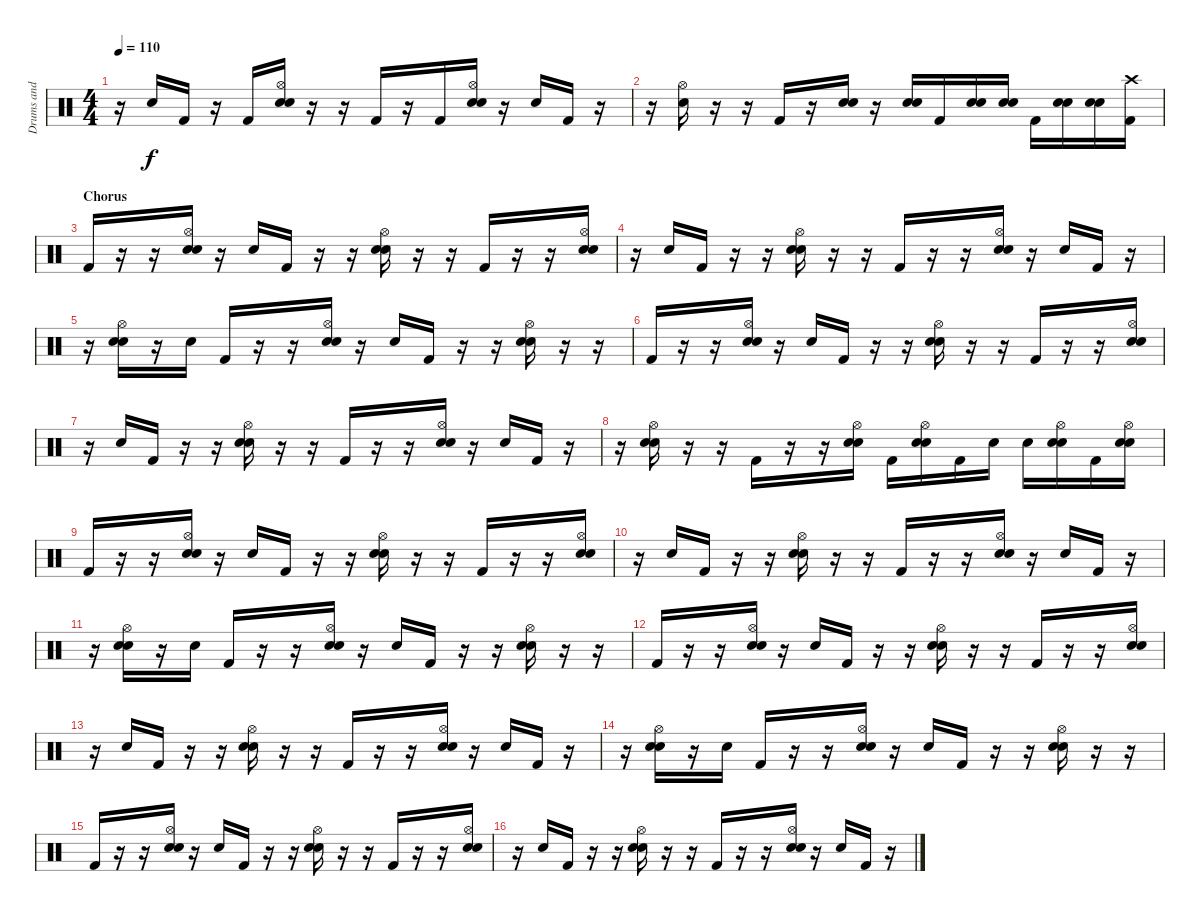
\track ("Drums and Claps" "Drums and ") {instrument percussion}
\staff {score}
\articulation defaults
\ts (4 4)
\tempo 110
\clef neutral
\ks c
r.16{dy f} "Hand Clap (hit)".16 "Kick (hit) 2".16 r.16 "Kick (hit) 2".16 ("Hi-Hat (open)" "Hand Clap (hit)" "Snare (hit) 2").16 r.16 r.16 "Kick (hit) 2".16 r.16 "Kick (hit) 2".16 ("Hi-Hat (open)" "Hand Clap (hit)" "Snare (hit) 2").16 r.16 "Hand Clap (hit)".16 "Kick (hit) 2".16 r.16 |
r.16 ("Hi-Hat (open)" "Snare (hit) 2").16 r.16 r.16 "Kick (hit) 2".16 r.16 ("Electric Snare (hit)" "Snare (hit) 2").16 r.16 ("Electric Snare (hit)" "Snare (hit) 2").16 "Kick (hit) 2".16 ("Electric Snare (hit)" "Snare (hit) 2").16 ("Electric Snare (hit)" "Snare (hit) 2").16 "Kick (hit) 2".16 ("Electric Snare (hit)" "Snare (hit) 2").16 ("Electric Snare (hit)" "Snare (hit) 2").16 ("Crash high (hit)" "Kick (hit) 2").16 |
\section ("" "Chorus")
"Kick (hit) 2".16 r.16 r.16 ("Hi-Hat (open)" "Hand Clap (hit)" "Snare (hit) 2").16 r.16 "Hand Clap (hit)".16 "Kick (hit) 2".16 r.16 r.16 ("Hi-Hat (open)" "Hand Clap (hit)" "Snare (hit) 2").16 r.16 r.16 "Kick (hit) 2".16 r.16 r.16 ("Hi-Hat (open)" "Hand Clap (hit)" "Snare (hit) 2").16 |
r.16 "Hand Clap (hit)".16 "Kick (hit) 2".16 r.16 r.16 ("Hi-Hat (open)" "Hand Clap (hit)" "Snare (hit) 2").16 r.16 r.16 "Kick (hit) 2".16 r.16 r.16 ("Hi-Hat (open)" "Hand Clap (hit)" "Snare (hit) 2").16 r.16 "Hand Clap (hit)".16 "Kick (hit) 2".16 r.16 |
r.16 ("Hi-Hat (open)" "Hand Clap (hit)" "Snare (hit) 2").16 r.16 "Snare (hit) 2".16 "Kick (hit) 2".16 r.16 r.16 ("Hi-Hat (open)" "Hand Clap (hit)" "Snare (hit) 2").16 r.16 "Hand Clap (hit)".16 "Kick (hit) 2".16 r.16 r.16 ("Hi-Hat (open)" "Hand Clap (hit)" "Snare (hit) 2").16 r.16 r.16 |
"Kick (hit) 2".16 r.16 r.16 ("Hi-Hat (open)" "Hand Clap (hit)" "Snare (hit) 2").16 r.16 "Hand Clap (hit)".16 "Kick (hit) 2".16 r.16 r.16 ("Hi-Hat (open)" "Hand Clap (hit)" "Snare (hit) 2").16 r.16 r.16 "Kick (hit) 2".16 r.16 r.16 ("Hi-Hat (open)" "Hand Clap (hit)" "Snare (hit) 2").16 |
r.16 "Hand Clap (hit)".16 "Kick (hit) 2".16 r.16 r.16 ("Hi-Hat (open)" "Hand Clap (hit)" "Snare (hit) 2").16 r.16 r.16 "Kick (hit) 2".16 r.16 r.16 ("Hi-Hat (open)" "Hand Clap (hit)" "Snare (hit) 2").16 r.16 "Hand Clap (hit)".16 "Kick (hit) 2".16 r.16 |
r.16 ("Hi-Hat (open)" "Hand Clap (hit)" "Snare (hit) 2").16 r.16 r.16 "Kick (hit) 2".16 r.16 r.16 ("Hi-Hat (open)" "Electric Snare (hit)" "Snare (hit) 2").16 "Kick (hit) 2".16 ("Hi-Hat (open)" "Electric Snare (hit)" "Snare (hit) 2").16 "Kick (hit) 2".16 "Snare (hit) 2".16 "Snare (hit) 2".16 ("Hi-Hat (open)" "Electric Snare (hit)" "Snare (hit) 2").16 "Kick (hit) 2".16 ("Hi-Hat (open)" "Electric Snare (hit)" "Snare (hit) 2").16 |
"Kick (hit) 2".16 r.16 r.16 ("Hi-Hat (open)" "Hand Clap (hit)" "Snare (hit) 2").16 r.16 "Hand Clap (hit)".16 "Kick (hit) 2".16 r.16 r.16 ("Hi-Hat (open)" "Hand Clap (hit)" "Snare (hit) 2").16 r.16 r.16 "Kick (hit) 2".16 r.16 r.16 ("Hi-Hat (open)" "Hand Clap (hit)" "Snare (hit) 2").16 |
r.16 "Hand Clap (hit)".16 "Kick (hit) 2".16 r.16 r.16 ("Hi-Hat (open)" "Hand Clap (hit)" "Snare (hit) 2").16 r.16 r.16 "Kick (hit) 2".16 r.16 r.16 ("Hi-Hat (open)" "Hand Clap (hit)" "Snare (hit) 2").16 r.16 "Hand Clap (hit)".16 "Kick (hit) 2".16 r.16 |
r.16 ("Hi-Hat (open)" "Hand Clap (hit)" "Snare (hit) 2").16 r.16 "Snare (hit) 2".16 "Kick (hit) 2".16 r.16 r.16 ("Hi-Hat (open)" "Hand Clap (hit)" "Snare (hit) 2").16 r.16 "Hand Clap (hit)".16 "Kick (hit) 2".16 r.16 r.16 ("Hi-Hat (open)" "Hand Clap (hit)" "Snare (hit) 2").16 r.16 r.16 |
"Kick (hit) 2".16 r.16 r.16 ("Hi-Hat (open)" "Hand Clap (hit)" "Snare (hit) 2").16 r.16 "Hand Clap (hit)".16 "Kick (hit) 2".16 r.16 r.16 ("Hi-Hat (open)" "Hand Clap (hit)" "Snare (hit) 2").16 r.16 r.16 "Kick (hit) 2".16 r.16 r.16 ("Hi-Hat (open)" "Hand Clap (hit)" "Snare (hit) 2").16 |
r.16 "Hand Clap (hit)".16 "Kick (hit) 2".16 r.16 r.16 ("Hi-Hat (open)" "Hand Clap (hit)" "Snare (hit) 2").16 r.16 r.16 "Kick (hit) 2".16 r.16 r.16 ("Hi-Hat (open)" "Hand Clap (hit)" "Snare (hit) 2").16 r.16 "Hand Clap (hit)".16 "Kick (hit) 2".16 r.16 |
r.16 ("Hi-Hat (open)" "Hand Clap (hit)" "Snare (hit) 2").16 r.16 "Snare (hit) 2".16 "Kick (hit) 2".16 r.16 r.16 ("Hi-Hat (open)" "Hand Clap (hit)" "Snare (hit) 2").16 r.16 "Hand Clap (hit)".16 "Kick (hit) 2".16 r.16 r.16 ("Hi-Hat (open)" "Hand Clap (hit)" "Snare (hit) 2").16 r.16 r.16 |
"Kick (hit) 2".16 r.16 r.16 ("Hi-Hat (open)" "Hand Clap (hit)" "Snare (hit) 2").16 r.16 "Hand Clap (hit)".16 "Kick (hit) 2".16 r.16 r.16 ("Hi-Hat (open)" "Hand Clap (hit)" "Snare (hit) 2").16 r.16 r.16 "Kick (hit) 2".16 r.16 r.16 ("Hi-Hat (open)" "Hand Clap (hit)" "Snare (hit) 2").16 |
r.16 "Hand Clap (hit)".16 "Kick (hit) 2".16 r.16 r.16 ("Hi-Hat (open)" "Hand Clap (hit)" "Snare (hit) 2").16 r.16 r.16 "Kick (hit) 2".16 r.16 r.16 ("Hi-Hat (open)" "Hand Clap (hit)" "Snare (hit) 2").16 r.16 "Hand Clap (hit)".16 "Kick (hit) 2".16 r.16
